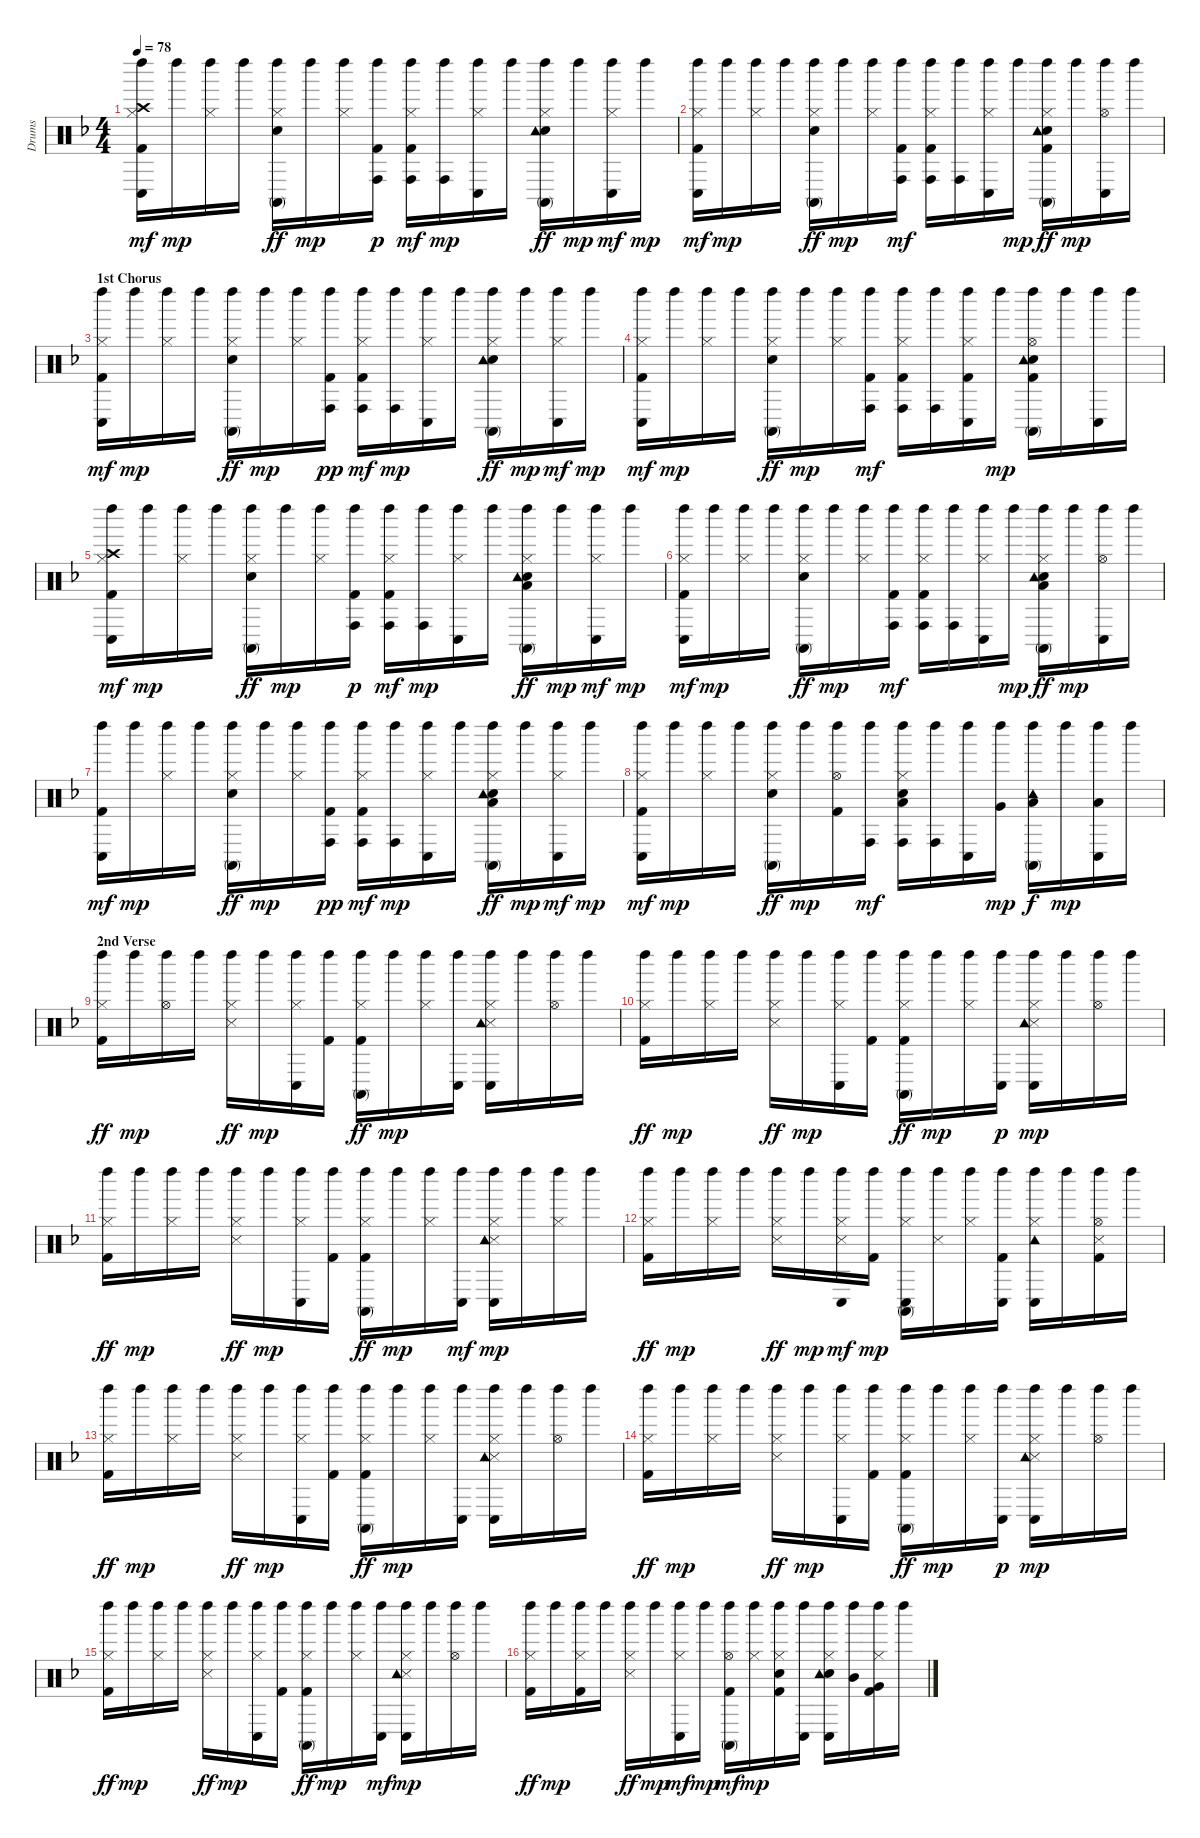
\track ("Drums" "Drums") {instrument percussion}
\staff {score}
\articulation defaults
\ts (4 4)
\tempo 78
\clef neutral
\ks f
("Kick (hit) 2" "Hi-Hat (closed)" "Left Maraca (hit)" "Crash high (hit)" "Conga low (hit)").16{dy mf} "Left Maraca (hit)".16{dy mp} ("Hi-Hat (closed)" "Left Maraca (hit)").16 "Left Maraca (hit)".16 ("Snare (hit) 2" "Hi-Hat (closed)" "Left Maraca (hit)" "Conga high (mute)").16{dy ff} "Left Maraca (hit)".16{dy mp} ("Hi-Hat (closed)" "Left Maraca (hit)").16 ("Kick (hit) 2" "Left Maraca (hit)" "Conga high (hit)").16{dy p} ("Kick (hit) 2" "Hi-Hat (closed)" "Left Maraca (hit)" "Conga high (hit)").16{dy mf} ("Left Maraca (hit)" "Conga high (hit)").16{dy mp} ("Hi-Hat (closed)" "Left Maraca (hit)" "Conga low (hit)").16 "Left Maraca (hit)".16 ("Snare (hit) 2" "Hi-Hat (closed)" "Left Maraca (hit)" "Conga high (mute)" "Tambourine (hit)").16{dy ff} "Left Maraca (hit)".16{dy mp} ("Hi-Hat (closed)" "Left Maraca (hit)" "Conga low (hit)").16{dy mf} "Left Maraca (hit)".16{dy mp} |
("Kick (hit) 2" "Hi-Hat (closed)" "Left Maraca (hit)" "Conga low (hit)").16{dy mf} "Left Maraca (hit)".16{dy mp} ("Hi-Hat (closed)" "Left Maraca (hit)").16 "Left Maraca (hit)".16 ("Snare (hit) 2" "Hi-Hat (closed)" "Left Maraca (hit)" "Conga high (mute)").16{dy ff} "Left Maraca (hit)".16{dy mp} ("Hi-Hat (closed)" "Left Maraca (hit)").16 ("Kick (hit) 2" "Left Maraca (hit)" "Conga high (hit)").16{dy mf} ("Kick (hit) 2" "Hi-Hat (closed)" "Left Maraca (hit)" "Conga high (hit)").16 ("Left Maraca (hit)" "Conga high (hit)").16 ("Hi-Hat (closed)" "Left Maraca (hit)" "Conga low (hit)").16 "Left Maraca (hit)".16{dy mp} ("Kick (hit) 2" "Snare (hit) 2" "Hi-Hat (closed)" "Left Maraca (hit)" "Conga high (mute)" "Tambourine (hit)").16{dy ff} "Left Maraca (hit)".16{dy mp} ("Hi-Hat (open)" "Left Maraca (hit)" "Conga low (hit)").16 "Left Maraca (hit)".16 |
\section ("" "1st Chorus")
("Kick (hit) 2" "Hi-Hat (closed)" "Left Maraca (hit)" "Conga low (hit)").16{dy mf} "Left Maraca (hit)".16{dy mp} ("Hi-Hat (closed)" "Left Maraca (hit)").16 "Left Maraca (hit)".16 ("Snare (hit) 2" "Hi-Hat (closed)" "Left Maraca (hit)" "Conga high (mute)").16{dy ff} "Left Maraca (hit)".16{dy mp} ("Hi-Hat (closed)" "Left Maraca (hit)").16 ("Kick (hit) 2" "Left Maraca (hit)" "Conga high (hit)").16{dy pp} ("Kick (hit) 2" "Hi-Hat (closed)" "Left Maraca (hit)" "Conga high (hit)").16{dy mf} ("Left Maraca (hit)" "Conga high (hit)").16{dy mp} ("Hi-Hat (closed)" "Left Maraca (hit)" "Conga low (hit)").16 "Left Maraca (hit)".16 ("Snare (hit) 2" "Hi-Hat (closed)" "Left Maraca (hit)" "Conga high (mute)" "Tambourine (hit)").16{dy ff} "Left Maraca (hit)".16{dy mp} ("Hi-Hat (closed)" "Left Maraca (hit)" "Conga low (hit)").16{dy mf} "Left Maraca (hit)".16{dy mp} |
("Kick (hit) 2" "Hi-Hat (closed)" "Left Maraca (hit)" "Conga low (hit)").16{dy mf} "Left Maraca (hit)".16{dy mp} ("Hi-Hat (closed)" "Left Maraca (hit)").16 "Left Maraca (hit)".16 ("Snare (hit) 2" "Hi-Hat (closed)" "Left Maraca (hit)" "Conga high (mute)").16{dy ff} "Left Maraca (hit)".16{dy mp} ("Hi-Hat (closed)" "Left Maraca (hit)").16 ("Kick (hit) 2" "Left Maraca (hit)" "Conga high (hit)").16{dy mf} ("Kick (hit) 2" "Hi-Hat (closed)" "Left Maraca (hit)" "Conga high (hit)").16 ("Left Maraca (hit)" "Conga high (hit)").16 ("Kick (hit) 2" "Hi-Hat (closed)" "Left Maraca (hit)" "Conga low (hit)").16 "Left Maraca (hit)".16{dy mp} ("Kick (hit) 2" "Snare (hit) 2" "Left Maraca (hit)" "Conga high (mute)" "Hi-Hat (open)" "Tambourine (hit)").16 "Left Maraca (hit)".16 ("Left Maraca (hit)" "Conga low (hit)").16 "Left Maraca (hit)".16 |
("Kick (hit) 2" "Hi-Hat (closed)" "Left Maraca (hit)" "Crash high (hit)" "Conga low (hit)").16{dy mf} "Left Maraca (hit)".16{dy mp} ("Hi-Hat (closed)" "Left Maraca (hit)").16 "Left Maraca (hit)".16 ("Snare (hit) 2" "Hi-Hat (closed)" "Left Maraca (hit)" "Conga high (mute)").16{dy ff} "Left Maraca (hit)".16{dy mp} ("Hi-Hat (closed)" "Left Maraca (hit)").16 ("Kick (hit) 2" "Left Maraca (hit)" "Conga high (hit)").16{dy p} ("Kick (hit) 2" "Hi-Hat (closed)" "Left Maraca (hit)" "Conga high (hit)").16{dy mf} ("Left Maraca (hit)" "Conga high (hit)").16{dy mp} ("Hi-Hat (closed)" "Left Maraca (hit)" "Conga low (hit)").16 "Left Maraca (hit)".16 ("Snare (hit) 2" "Hi-Hat (closed)" "Left Maraca (hit)" "Low Floor Tom (hit)" "Conga high (mute)" "Tambourine (hit)").16{dy ff} "Left Maraca (hit)".16{dy mp} ("Hi-Hat (closed)" "Left Maraca (hit)" "Conga low (hit)").16{dy mf} "Left Maraca (hit)".16{dy mp} |
("Kick (hit) 2" "Hi-Hat (closed)" "Left Maraca (hit)" "Conga low (hit)").16{dy mf} "Left Maraca (hit)".16{dy mp} ("Hi-Hat (closed)" "Left Maraca (hit)").16 "Left Maraca (hit)".16 ("Snare (hit) 2" "Hi-Hat (closed)" "Left Maraca (hit)" "Conga high (mute)").16{dy ff} "Left Maraca (hit)".16{dy mp} ("Hi-Hat (closed)" "Left Maraca (hit)").16 ("Kick (hit) 2" "Left Maraca (hit)" "Conga high (hit)").16{dy mf} ("Kick (hit) 2" "Hi-Hat (closed)" "Left Maraca (hit)" "Conga high (hit)").16 ("Left Maraca (hit)" "Conga high (hit)").16 ("Hi-Hat (closed)" "Left Maraca (hit)" "Conga low (hit)").16 "Left Maraca (hit)".16{dy mp} ("Snare (hit) 2" "Hi-Hat (closed)" "Left Maraca (hit)" "Low Floor Tom (hit)" "Conga high (mute)" "Tambourine (hit)").16{dy ff} "Left Maraca (hit)".16{dy mp} ("Hi-Hat (open)" "Left Maraca (hit)" "Conga low (hit)").16 "Left Maraca (hit)".16 |
("Kick (hit) 2" "Left Maraca (hit)" "Conga low (hit)").16{dy mf} "Left Maraca (hit)".16{dy mp} ("Hi-Hat (closed)" "Left Maraca (hit)").16 "Left Maraca (hit)".16 ("Snare (hit) 2" "Hi-Hat (closed)" "Left Maraca (hit)" "Conga high (mute)").16{dy ff} "Left Maraca (hit)".16{dy mp} ("Hi-Hat (closed)" "Left Maraca (hit)").16 ("Kick (hit) 2" "Left Maraca (hit)" "Conga high (hit)").16{dy pp} ("Kick (hit) 2" "Hi-Hat (closed)" "Left Maraca (hit)" "Conga high (hit)").16{dy mf} ("Left Maraca (hit)" "Conga high (hit)").16{dy mp} ("Hi-Hat (closed)" "Left Maraca (hit)" "Conga low (hit)").16 "Left Maraca (hit)".16 ("Snare (hit) 2" "Hi-Hat (closed)" "Left Maraca (hit)" "Low Floor Tom (hit)" "Conga high (mute)" "Tambourine (hit)").16{dy ff} "Left Maraca (hit)".16{dy mp} ("Hi-Hat (closed)" "Left Maraca (hit)" "Conga low (hit)").16{dy mf} "Left Maraca (hit)".16{dy mp} |
("Kick (hit) 2" "Hi-Hat (closed)" "Left Maraca (hit)" "Conga low (hit)").16{dy mf} "Left Maraca (hit)".16{dy mp} ("Hi-Hat (closed)" "Left Maraca (hit)").16 "Left Maraca (hit)".16 ("Snare (hit) 2" "Hi-Hat (closed)" "Left Maraca (hit)" "Conga high (mute)").16{dy ff} "Left Maraca (hit)".16{dy mp} ("Kick (hit) 2" "Hi-Hat (open)" "Left Maraca (hit)").16 ("Left Maraca (hit)" "Conga high (hit)").16{dy mf} ("Snare (hit) 2" "Hi-Hat (closed)" "Left Maraca (hit)" "Low Floor Tom (hit)" "Conga high (hit)").16 ("Left Maraca (hit)" "Conga high (hit)").16 ("Left Maraca (hit)" "Conga low (hit)").16 ("Left Maraca (hit)" "Very Low Tom (hit)").16{dy mp} ("Left Maraca (hit)" "Low Floor Tom (hit)" "Conga high (mute)" "Tambourine (hit)").16{dy f} "Left Maraca (hit)".16{dy mp} ("Left Maraca (hit)" "Low Floor Tom (hit)" "Conga low (hit)").16 "Left Maraca (hit)".16 |
\section ("" "2nd Verse")
("Kick (hit) 2" "Hi-Hat (closed)" "Left Maraca (hit)").16{dy ff} "Left Maraca (hit)".16{dy mp} ("Hi-Hat (open)" "Left Maraca (hit)").16 "Left Maraca (hit)".16 ("Hi-Hat (closed)" "Left Maraca (hit)" "Snare (side stick) 3").16{dy ff} "Left Maraca (hit)".16{dy mp} ("Hi-Hat (closed)" "Left Maraca (hit)" "Conga low (hit)").16 ("Kick (hit) 2" "Left Maraca (hit)").16 ("Kick (hit) 2" "Hi-Hat (closed)" "Left Maraca (hit)" "Conga high (mute)").16{dy ff} "Left Maraca (hit)".16{dy mp} ("Hi-Hat (closed)" "Left Maraca (hit)").16 ("Left Maraca (hit)" "Conga low (hit)").16 ("Hi-Hat (closed)" "Left Maraca (hit)" "Snare (side stick) 3" "Tambourine (hit)" "Conga low (hit)").16 "Left Maraca (hit)".16 ("Hi-Hat (open)" "Left Maraca (hit)").16 "Left Maraca (hit)".16 |
("Kick (hit) 2" "Hi-Hat (closed)" "Left Maraca (hit)").16{dy ff} "Left Maraca (hit)".16{dy mp} ("Hi-Hat (closed)" "Left Maraca (hit)").16 "Left Maraca (hit)".16 ("Hi-Hat (closed)" "Left Maraca (hit)" "Snare (side stick) 3").16{dy ff} "Left Maraca (hit)".16{dy mp} ("Hi-Hat (closed)" "Left Maraca (hit)" "Conga low (hit)").16 ("Kick (hit) 2" "Left Maraca (hit)").16 ("Kick (hit) 2" "Hi-Hat (closed)" "Left Maraca (hit)" "Conga high (mute)").16{dy ff} "Left Maraca (hit)".16{dy mp} ("Hi-Hat (closed)" "Left Maraca (hit)").16 ("Left Maraca (hit)" "Conga low (hit)").16{dy p} ("Hi-Hat (closed)" "Left Maraca (hit)" "Snare (side stick) 3" "Tambourine (hit)" "Conga low (hit)").16{dy mp} "Left Maraca (hit)".16 ("Hi-Hat (open)" "Left Maraca (hit)").16 "Left Maraca (hit)".16 |
("Kick (hit) 2" "Hi-Hat (closed)" "Left Maraca (hit)").16{dy ff} "Left Maraca (hit)".16{dy mp} ("Hi-Hat (closed)" "Left Maraca (hit)").16 "Left Maraca (hit)".16 ("Hi-Hat (closed)" "Left Maraca (hit)" "Snare (side stick) 3").16{dy ff} "Left Maraca (hit)".16{dy mp} ("Hi-Hat (closed)" "Left Maraca (hit)" "Conga low (hit)").16 ("Kick (hit) 2" "Left Maraca (hit)").16 ("Kick (hit) 2" "Hi-Hat (closed)" "Left Maraca (hit)" "Conga high (mute)").16{dy ff} "Left Maraca (hit)".16{dy mp} ("Hi-Hat (closed)" "Left Maraca (hit)").16 ("Left Maraca (hit)" "Conga low (hit)").16{dy mf} ("Hi-Hat (closed)" "Left Maraca (hit)" "Snare (side stick) 3" "Tambourine (hit)" "Conga low (hit)").16{dy mp} "Left Maraca (hit)".16 ("Hi-Hat (closed)" "Left Maraca (hit)").16 "Left Maraca (hit)".16 |
("Kick (hit) 2" "Hi-Hat (closed)" "Left Maraca (hit)").16{dy ff} "Left Maraca (hit)".16{dy mp} ("Hi-Hat (closed)" "Left Maraca (hit)").16 "Left Maraca (hit)".16 ("Hi-Hat (closed)" "Left Maraca (hit)" "Snare (side stick) 3").16{dy ff} "Left Maraca (hit)".16{dy mp} ("Hi-Hat (closed)" "Left Maraca (hit)" "Snare (side stick) 3" "Conga low (hit)").16{dy mf} ("Kick (hit) 2" "Left Maraca (hit)").16{dy mp} ("Hi-Hat (closed)" "Left Maraca (hit)" "Conga high (mute)" "Conga low (hit)").16 ("Left Maraca (hit)" "Snare (side stick) 3").16 ("Hi-Hat (closed)" "Left Maraca (hit)").16 ("Kick (hit) 2" "Left Maraca (hit)" "Conga low (hit)").16 ("Hi-Hat (closed)" "Left Maraca (hit)" "Tambourine (hit)" "Conga low (hit)").16 "Left Maraca (hit)".16 ("Kick (hit) 2" "Hi-Hat (open)" "Left Maraca (hit)" "Snare (side stick) 3").16 "Left Maraca (hit)".16 |
("Kick (hit) 2" "Hi-Hat (closed)" "Left Maraca (hit)").16{dy ff} "Left Maraca (hit)".16{dy mp} ("Hi-Hat (closed)" "Left Maraca (hit)").16 "Left Maraca (hit)".16 ("Hi-Hat (closed)" "Left Maraca (hit)" "Snare (side stick) 3").16{dy ff} "Left Maraca (hit)".16{dy mp} ("Hi-Hat (closed)" "Left Maraca (hit)" "Conga low (hit)").16 ("Kick (hit) 2" "Left Maraca (hit)").16 ("Kick (hit) 2" "Hi-Hat (closed)" "Left Maraca (hit)" "Conga high (mute)").16{dy ff} "Left Maraca (hit)".16{dy mp} ("Hi-Hat (closed)" "Left Maraca (hit)").16 ("Left Maraca (hit)" "Conga low (hit)").16 ("Hi-Hat (closed)" "Left Maraca (hit)" "Snare (side stick) 3" "Tambourine (hit)" "Conga low (hit)").16 "Left Maraca (hit)".16 ("Hi-Hat (open)" "Left Maraca (hit)").16 "Left Maraca (hit)".16 |
("Kick (hit) 2" "Hi-Hat (closed)" "Left Maraca (hit)").16{dy ff} "Left Maraca (hit)".16{dy mp} ("Hi-Hat (closed)" "Left Maraca (hit)").16 "Left Maraca (hit)".16 ("Hi-Hat (closed)" "Left Maraca (hit)" "Snare (side stick) 3").16{dy ff} "Left Maraca (hit)".16{dy mp} ("Hi-Hat (closed)" "Left Maraca (hit)" "Conga low (hit)").16 ("Kick (hit) 2" "Left Maraca (hit)").16 ("Kick (hit) 2" "Hi-Hat (closed)" "Left Maraca (hit)" "Conga high (mute)").16{dy ff} "Left Maraca (hit)".16{dy mp} ("Hi-Hat (closed)" "Left Maraca (hit)").16 ("Left Maraca (hit)" "Conga low (hit)").16{dy p} ("Hi-Hat (closed)" "Left Maraca (hit)" "Snare (side stick) 3" "Tambourine (hit)" "Conga low (hit)").16{dy mp} "Left Maraca (hit)".16 ("Hi-Hat (open)" "Left Maraca (hit)").16 "Left Maraca (hit)".16 |
("Kick (hit) 2" "Hi-Hat (closed)" "Left Maraca (hit)").16{dy ff} "Left Maraca (hit)".16{dy mp} ("Hi-Hat (closed)" "Left Maraca (hit)").16 "Left Maraca (hit)".16 ("Hi-Hat (closed)" "Left Maraca (hit)" "Snare (side stick) 3").16{dy ff} "Left Maraca (hit)".16{dy mp} ("Hi-Hat (closed)" "Left Maraca (hit)" "Conga low (hit)").16 ("Kick (hit) 2" "Left Maraca (hit)").16 ("Kick (hit) 2" "Hi-Hat (closed)" "Left Maraca (hit)" "Conga high (mute)").16{dy ff} "Left Maraca (hit)".16{dy mp} ("Hi-Hat (closed)" "Left Maraca (hit)").16 ("Left Maraca (hit)" "Conga low (hit)").16{dy mf} ("Hi-Hat (closed)" "Left Maraca (hit)" "Snare (side stick) 3" "Tambourine (hit)" "Conga low (hit)").16{dy mp} "Left Maraca (hit)".16 ("Hi-Hat (open)" "Left Maraca (hit)").16 "Left Maraca (hit)".16 |
("Kick (hit) 2" "Hi-Hat (closed)" "Left Maraca (hit)").16{dy ff} "Left Maraca (hit)".16{dy mp} ("Kick (hit) 2" "Hi-Hat (closed)" "Left Maraca (hit)").16 "Left Maraca (hit)".16 ("Hi-Hat (closed)" "Left Maraca (hit)" "Snare (side stick) 3").16{dy ff} "Left Maraca (hit)".16{dy mp} ("Hi-Hat (closed)" "Left Maraca (hit)" "Conga low (hit)").16{dy mf} "Left Maraca (hit)".16{dy mp} ("Kick (hit) 2" "Hi-Hat (open)" "Left Maraca (hit)" "Conga high (mute)").16{dy mf} ("Hi-Hat (closed)" "Left Maraca (hit)").16{dy mp} ("Kick (hit) 2" "Snare (hit) 2" "Hi-Hat (closed)" "Left Maraca (hit)").16 ("Left Maraca (hit)" "Conga low (hit)").16 ("Snare (hit) 2" "Hi-Hat (closed)" "Left Maraca (hit)" "Tambourine (hit)" "Conga low (hit)").16 ("Left Maraca (hit)" "Mid Tom (hit)").16 ("Kick (hit) 2" "Hi-Hat (closed)" "Left Maraca (hit)" "Very Low Tom (hit)").16 "Left Maraca (hit)".16
